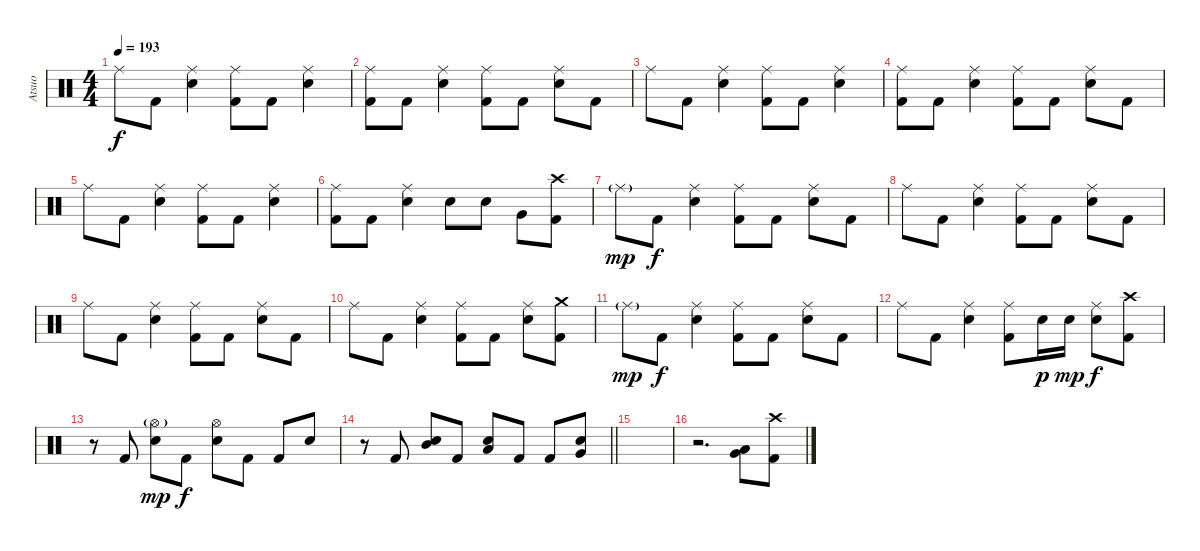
\track ("Atsuo" "Atsuo") {instrument percussion}
\staff {score}
\articulation defaults
\ts (4 4)
\tempo 193
\clef neutral
\ks c "Ride (middle)".8{dy f} "Kick (hit) 2".8
("Ride (middle)" "Electric Snare (hit)").4 ("Ride (middle)" "Kick (hit) 2").8 "Kick (hit) 2".8 ("Ride (middle)" "Electric Snare (hit)").4 |
("Ride (middle)" "Kick (hit) 2").8 "Kick (hit) 2".8 ("Ride (middle)" "Electric Snare (hit)").4 ("Ride (middle)" "Kick (hit) 2").8 "Kick (hit) 2".8 ("Ride (middle)" "Electric Snare (hit)").8 "Kick (hit) 2".8 |
"Ride (middle)".8 "Kick (hit) 2".8 ("Ride (middle)" "Electric Snare (hit)").4 ("Ride (middle)" "Kick (hit) 2").8 "Kick (hit) 2".8 ("Ride (middle)" "Electric Snare (hit)").4 |
("Ride (middle)" "Kick (hit) 2").8 "Kick (hit) 2".8 ("Ride (middle)" "Electric Snare (hit)").4 ("Ride (middle)" "Kick (hit) 2").8 "Kick (hit) 2".8 ("Ride (middle)" "Electric Snare (hit)").8 "Kick (hit) 2".8 |
"Ride (middle)".8 "Kick (hit) 2".8 ("Ride (middle)" "Electric Snare (hit)").4 ("Ride (middle)" "Kick (hit) 2").8 "Kick (hit) 2".8 ("Ride (middle)" "Electric Snare (hit)").4 |
("Ride (middle)" "Kick (hit) 2").8 "Kick (hit) 2".8 ("Ride (middle)" "Electric Snare (hit)").4 "Electric Snare (hit)".8 "Electric Snare (hit)".8 "Very Low Tom (hit)".8 ("Crash high (hit)" "Kick (hit) 2").8 |
"Ride (middle)"{g}.8{dy mp} "Kick (hit) 2".8{dy f} ("Ride (middle)" "Electric Snare (hit)").4 ("Ride (middle)" "Kick (hit) 2").8 "Kick (hit) 2".8 ("Ride (middle)" "Electric Snare (hit)").8 "Kick (hit) 2".8 |
"Ride (middle)".8 "Kick (hit) 2".8 ("Ride (middle)" "Electric Snare (hit)").4 ("Ride (middle)" "Kick (hit) 2").8 "Kick (hit) 2".8 ("Ride (middle)" "Electric Snare (hit)").8 "Kick (hit) 2".8 |
"Ride (middle)".8 "Kick (hit) 2".8 ("Ride (middle)" "Electric Snare (hit)").4 ("Ride (middle)" "Kick (hit) 2").8 "Kick (hit) 2".8 ("Ride (middle)" "Electric Snare (hit)").8 "Kick (hit) 2".8 |
"Ride (middle)".8 "Kick (hit) 2".8 ("Ride (middle)" "Electric Snare (hit)").4 ("Ride (middle)" "Kick (hit) 2").8 "Kick (hit) 2".8 ("Ride (middle)" "Electric Snare (hit)").8 ("Crash medium (hit)" "Kick (hit) 2").8 |
"Ride (middle)"{g}.8{dy mp} "Kick (hit) 2".8{dy f} ("Ride (middle)" "Electric Snare (hit)").4 ("Ride (middle)" "Kick (hit) 2").8 "Kick (hit) 2".8 ("Ride (middle)" "Electric Snare (hit)").8 "Kick (hit) 2".8 |
"Ride (middle)".8 "Kick (hit) 2".8 ("Ride (middle)" "Electric Snare (hit)").4 ("Ride (middle)" "Kick (hit) 2").8 "Electric Snare (hit)".16{dy p} "Electric Snare (hit)".16{dy mp} ("Ride (middle)" "Electric Snare (hit)").8{dy f} ("Crash high (hit)" "Kick (hit) 2").8 |
r.8 "Kick (hit) 2".8 ("Hi-Hat (open)"{g} "Electric Snare (hit)").8{dy mp} "Kick (hit) 2".8{dy f} ("Hi-Hat (open)" "Electric Snare (hit)").8 "Kick (hit) 2".8 "Kick (hit) 2".8 "Electric Snare (hit)".8 |
\barLineRight lightlight
r.8 "Kick (hit) 2".8 ("Mid Tom (hit)" "Electric Snare (hit)").8 "Kick (hit) 2".8 ("Low Tom (hit)" "Electric Snare (hit)").8 "Kick (hit) 2".8 "Kick (hit) 2".8 ("Very Low Tom (hit)" "Electric Snare (hit)").8 |
\section ("" "")
|
r.2{d} ("Very Low Tom (hit)" "Low Floor Tom (hit)").8 ("Crash high (hit)" "Kick (hit) 2").8
